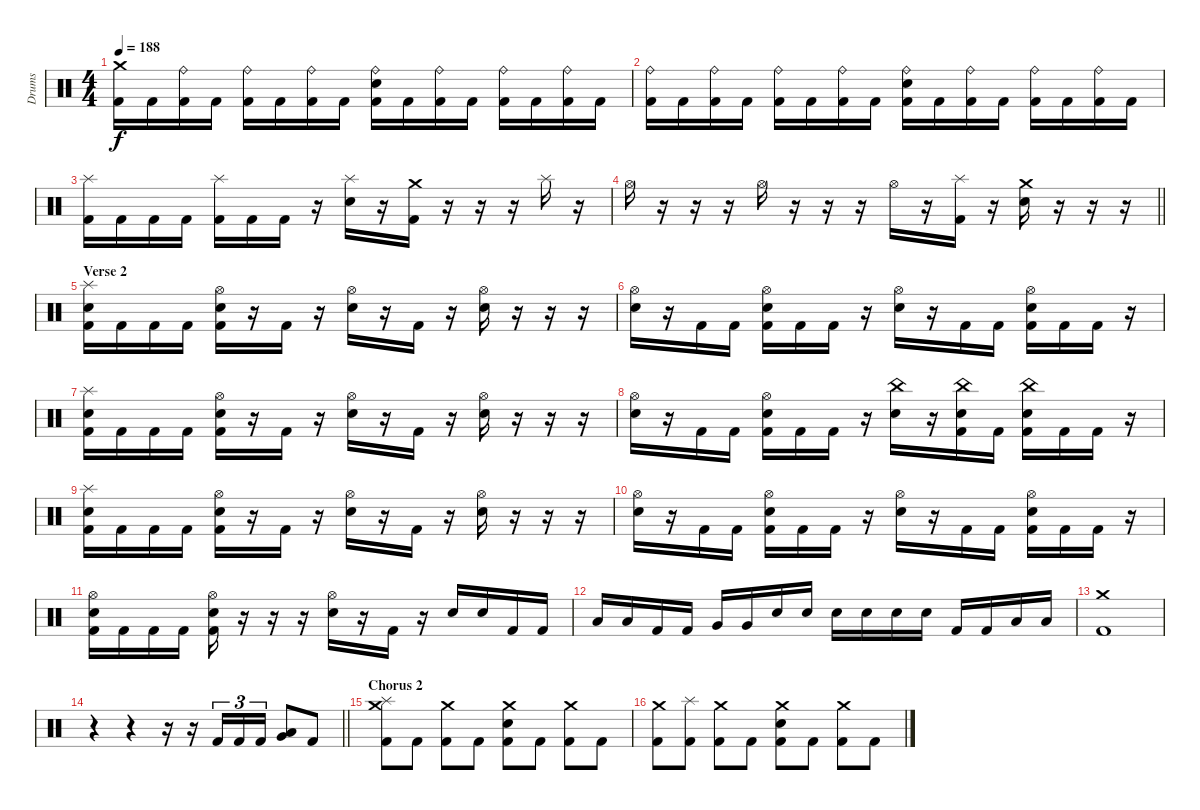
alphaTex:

\track ("Drums" "Drums") {instrument percussion}
\staff {score}
\articulation defaults
\ts (4 4)
\tempo 188
\clef neutral
\ks c
("Crash medium (hit)" "Kick (hit) 2").16{dy f} "Kick (hit) 2".16 ("Ride (bell)" "Kick (hit) 2").16 "Kick (hit) 2".16 ("Ride (bell)" "Kick (hit) 2").16 "Kick (hit) 2".16 ("Ride (bell)" "Kick (hit) 2").16 "Kick (hit) 2".16 ("Ride (bell)" "Snare (hit) 2" "Kick (hit) 2").16 "Kick (hit) 2".16 ("Ride (bell)" "Kick (hit) 2").16 "Kick (hit) 2".16 ("Ride (bell)" "Kick (hit) 2").16 "Kick (hit) 2".16 ("Ride (bell)" "Kick (hit) 2").16 "Kick (hit) 2".16 |
("Ride (bell)" "Kick (hit) 2").16 "Kick (hit) 2".16 ("Ride (bell)" "Kick (hit) 2").16 "Kick (hit) 2".16 ("Ride (bell)" "Kick (hit) 2").16 "Kick (hit) 2".16 ("Ride (bell)" "Kick (hit) 2").16 "Kick (hit) 2".16 ("Ride (bell)" "Snare (hit) 2" "Kick (hit) 2").16 "Kick (hit) 2".16 ("Ride (bell)" "Kick (hit) 2").16 "Kick (hit) 2".16 ("Ride (bell)" "Kick (hit) 2").16 "Kick (hit) 2".16 ("Ride (bell)" "Kick (hit) 2").16 "Kick (hit) 2".16 |
("Splash (hit)" "Kick (hit) 2").16 "Kick (hit) 2".16 "Kick (hit) 2".16 "Kick (hit) 2".16 ("Splash (hit)" "Kick (hit) 2").16 "Kick (hit) 2".16 "Kick (hit) 2".16 r.16 ("Splash (hit)" "Snare (hit) 2").16 r.16 ("Crash medium (hit)" "Kick (hit) 2").16 r.16 r.16 r.16 "Splash (hit)".16 r.16 |
\barLineRight lightlight "Hi-Hat (open)".16
r.16 r.16 r.16 "Hi-Hat (open)".16 r.16 r.16 r.16 "Hi-Hat (open)".16 r.16 ("Splash (hit)" "Kick (hit) 2").16 r.16 ("Crash medium (hit)" "Snare (hit) 2").16 r.16 r.16 r.16 |
\section ("" "Verse 2")
("Splash (hit)" "Snare (hit) 2" "Kick (hit) 2").16 "Kick (hit) 2".16 "Kick (hit) 2".16 "Kick (hit) 2".16 ("Hi-Hat (open)" "Snare (hit) 2" "Kick (hit) 2").16 r.16 "Kick (hit) 2".16 r.16 ("Hi-Hat (open)" "Snare (hit) 2").16 r.16 "Kick (hit) 2".16 r.16 ("Hi-Hat (open)" "Snare (hit) 2").16 r.16 r.16 r.16 |
("Hi-Hat (open)" "Snare (hit) 2").16 r.16 "Kick (hit) 2".16 "Kick (hit) 2".16 ("Hi-Hat (open)" "Snare (hit) 2" "Kick (hit) 2").16 "Kick (hit) 2".16 "Kick (hit) 2".16 r.16 ("Hi-Hat (open)" "Snare (hit) 2").16 r.16 "Kick (hit) 2".16 "Kick (hit) 2".16 ("Hi-Hat (open)" "Snare (hit) 2" "Kick (hit) 2").16 "Kick (hit) 2".16 "Kick (hit) 2".16 r.16 |
("Splash (hit)" "Snare (hit) 2" "Kick (hit) 2").16 "Kick (hit) 2".16 "Kick (hit) 2".16 "Kick (hit) 2".16 ("Hi-Hat (open)" "Snare (hit) 2" "Kick (hit) 2").16 r.16 "Kick (hit) 2".16 r.16 ("Hi-Hat (open)" "Snare (hit) 2").16 r.16 "Kick (hit) 2".16 r.16 ("Hi-Hat (open)" "Snare (hit) 2").16 r.16 r.16 r.16 |
("Hi-Hat (open)" "Snare (hit) 2").16 r.16 "Kick (hit) 2".16 "Kick (hit) 2".16 ("Hi-Hat (open)" "Snare (hit) 2" "Kick (hit) 2").16 "Kick (hit) 2".16 "Kick (hit) 2".16 r.16 ("China (hit)" "Snare (hit) 2").16 r.16 ("China (hit)" "Snare (hit) 2" "Kick (hit) 2").16 "Kick (hit) 2".16 ("China (hit)" "Snare (hit) 2" "Kick (hit) 2").16 "Kick (hit) 2".16 "Kick (hit) 2".16 r.16 |
("Splash (hit)" "Snare (hit) 2" "Kick (hit) 2").16 "Kick (hit) 2".16 "Kick (hit) 2".16 "Kick (hit) 2".16 ("Hi-Hat (open)" "Snare (hit) 2" "Kick (hit) 2").16 r.16 "Kick (hit) 2".16 r.16 ("Hi-Hat (open)" "Snare (hit) 2").16 r.16 "Kick (hit) 2".16 r.16 ("Hi-Hat (open)" "Snare (hit) 2").16 r.16 r.16 r.16 |
("Hi-Hat (open)" "Snare (hit) 2").16 r.16 "Kick (hit) 2".16 "Kick (hit) 2".16 ("Hi-Hat (open)" "Snare (hit) 2" "Kick (hit) 2").16 "Kick (hit) 2".16 "Kick (hit) 2".16 r.16 ("Hi-Hat (open)" "Snare (hit) 2").16 r.16 "Kick (hit) 2".16 "Kick (hit) 2".16 ("Hi-Hat (open)" "Snare (hit) 2" "Kick (hit) 2").16 "Kick (hit) 2".16 "Kick (hit) 2".16 r.16 |
("Hi-Hat (open)" "Snare (hit) 2" "Kick (hit) 2").16 "Kick (hit) 2".16 "Kick (hit) 2".16 "Kick (hit) 2".16 ("Hi-Hat (open)" "Snare (hit) 2" "Kick (hit) 2").16 r.16 r.16 r.16 ("Hi-Hat (open)" "Snare (hit) 2").16 r.16 "Kick (hit) 2".16 r.16 "Snare (hit) 2".16 "Snare (hit) 2".16 "Kick (hit) 2".16 "Kick (hit) 2".16 |
"Low Tom (hit)".16 "Low Tom (hit)".16 "Kick (hit) 2".16 "Kick (hit) 2".16 "Very Low Tom (hit)".16 "Very Low Tom (hit)".16 "Snare (hit) 2".16 "Snare (hit) 2".16 "Snare (hit) 2".16 "Snare (hit) 2".16 "Snare (hit) 2".16 "Snare (hit) 2".16 "Kick (hit) 2".16 "Kick (hit) 2".16 "Low Floor Tom (hit)".16 "Low Floor Tom (hit)".16 |
("Crash medium (hit)" "Kick (hit) 2").1 |
\barLineRight lightlight
r.4 r.4 r.16 r.16 "Kick (hit) 2".16{tu (3 2)} "Kick (hit) 2".16{tu (3 2)} "Kick (hit) 2".16{tu (3 2)} ("Very Low Tom (hit)" "Low Floor Tom (hit)").8 "Kick (hit) 2".8 |
\section ("" "Chorus 2")
("Crash medium (hit)" "Splash (hit)" "Kick (hit) 2").8 "Kick (hit) 2".8 ("Crash medium (hit)" "Kick (hit) 2").8 "Kick (hit) 2".8 ("Crash medium (hit)" "Snare (hit) 2" "Kick (hit) 2").8 "Kick (hit) 2".8 ("Crash medium (hit)" "Kick (hit) 2").8 "Kick (hit) 2".8 |
("Crash medium (hit)" "Kick (hit) 2").8 ("Splash (hit)" "Kick (hit) 2").8 ("Crash medium (hit)" "Kick (hit) 2").8 "Kick (hit) 2".8 ("Crash medium (hit)" "Snare (hit) 2" "Kick (hit) 2").8 "Kick (hit) 2".8 ("Crash medium (hit)" "Kick (hit) 2").8 "Kick (hit) 2".8
